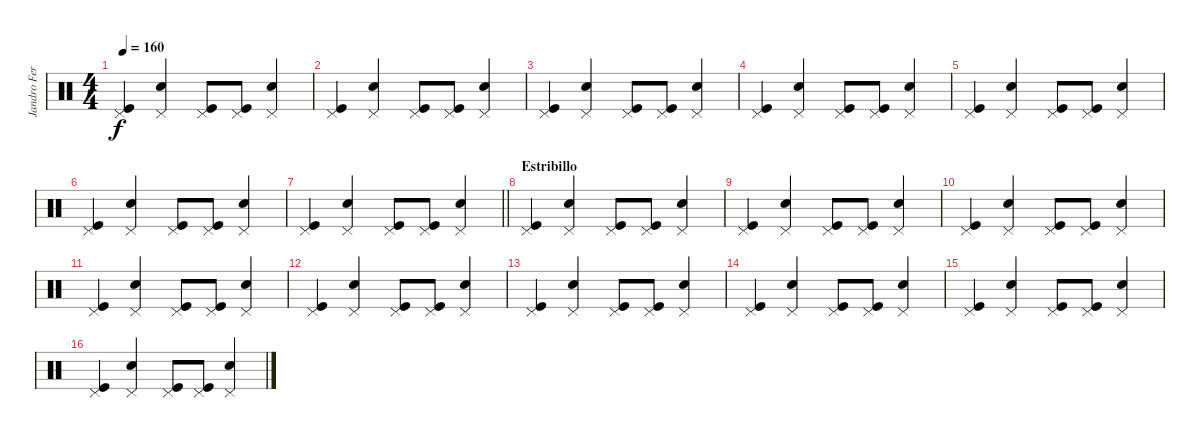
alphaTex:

\track ("Jandro Fernández" "Jandro Fer") {instrument percussion}
\staff
\articulation defaults
\ts (4 4)
\tempo 160
\clef neutral
\ks c
("Pedal Hi-Hat (hit)" "Kick (hit)").4{dy f} ("Pedal Hi-Hat (hit)" "Snare (hit) 2").4 ("Pedal Hi-Hat (hit)" "Kick (hit)").8 ("Pedal Hi-Hat (hit)" "Kick (hit)").8 ("Pedal Hi-Hat (hit)" "Snare (hit) 2").4 |
("Pedal Hi-Hat (hit)" "Kick (hit)").4 ("Pedal Hi-Hat (hit)" "Snare (hit) 2").4 ("Pedal Hi-Hat (hit)" "Kick (hit)").8 ("Pedal Hi-Hat (hit)" "Kick (hit)").8 ("Pedal Hi-Hat (hit)" "Snare (hit) 2").4 |
("Pedal Hi-Hat (hit)" "Kick (hit)").4 ("Pedal Hi-Hat (hit)" "Snare (hit) 2").4 ("Pedal Hi-Hat (hit)" "Kick (hit)").8 ("Pedal Hi-Hat (hit)" "Kick (hit)").8 ("Pedal Hi-Hat (hit)" "Snare (hit) 2").4 |
("Pedal Hi-Hat (hit)" "Kick (hit)").4 ("Pedal Hi-Hat (hit)" "Snare (hit) 2").4 ("Pedal Hi-Hat (hit)" "Kick (hit)").8 ("Pedal Hi-Hat (hit)" "Kick (hit)").8 ("Pedal Hi-Hat (hit)" "Snare (hit) 2").4 |
("Pedal Hi-Hat (hit)" "Kick (hit)").4 ("Pedal Hi-Hat (hit)" "Snare (hit) 2").4 ("Pedal Hi-Hat (hit)" "Kick (hit)").8 ("Pedal Hi-Hat (hit)" "Kick (hit)").8 ("Pedal Hi-Hat (hit)" "Snare (hit) 2").4 |
("Pedal Hi-Hat (hit)" "Kick (hit)").4 ("Pedal Hi-Hat (hit)" "Snare (hit) 2").4 ("Pedal Hi-Hat (hit)" "Kick (hit)").8 ("Pedal Hi-Hat (hit)" "Kick (hit)").8 ("Pedal Hi-Hat (hit)" "Snare (hit) 2").4 |
\barLineRight lightlight
("Pedal Hi-Hat (hit)" "Kick (hit)").4 ("Pedal Hi-Hat (hit)" "Snare (hit) 2").4 ("Pedal Hi-Hat (hit)" "Kick (hit)").8 ("Pedal Hi-Hat (hit)" "Kick (hit)").8 ("Pedal Hi-Hat (hit)" "Snare (hit) 2").4 |
\section ("" "Estribillo")
("Pedal Hi-Hat (hit)" "Kick (hit)").4 ("Pedal Hi-Hat (hit)" "Snare (hit) 2").4 ("Pedal Hi-Hat (hit)" "Kick (hit)").8 ("Pedal Hi-Hat (hit)" "Kick (hit)").8 ("Pedal Hi-Hat (hit)" "Snare (hit) 2").4 |
("Pedal Hi-Hat (hit)" "Kick (hit)").4 ("Pedal Hi-Hat (hit)" "Snare (hit) 2").4 ("Pedal Hi-Hat (hit)" "Kick (hit)").8 ("Pedal Hi-Hat (hit)" "Kick (hit)").8 ("Pedal Hi-Hat (hit)" "Snare (hit) 2").4 |
("Pedal Hi-Hat (hit)" "Kick (hit)").4 ("Pedal Hi-Hat (hit)" "Snare (hit) 2").4 ("Pedal Hi-Hat (hit)" "Kick (hit)").8 ("Pedal Hi-Hat (hit)" "Kick (hit)").8 ("Pedal Hi-Hat (hit)" "Snare (hit) 2").4 |
("Pedal Hi-Hat (hit)" "Kick (hit)").4 ("Pedal Hi-Hat (hit)" "Snare (hit) 2").4 ("Pedal Hi-Hat (hit)" "Kick (hit)").8 ("Pedal Hi-Hat (hit)" "Kick (hit)").8 ("Pedal Hi-Hat (hit)" "Snare (hit) 2").4 |
("Pedal Hi-Hat (hit)" "Kick (hit)").4 ("Pedal Hi-Hat (hit)" "Snare (hit) 2").4 ("Pedal Hi-Hat (hit)" "Kick (hit)").8 ("Pedal Hi-Hat (hit)" "Kick (hit)").8 ("Pedal Hi-Hat (hit)" "Snare (hit) 2").4 |
("Pedal Hi-Hat (hit)" "Kick (hit)").4 ("Pedal Hi-Hat (hit)" "Snare (hit) 2").4 ("Pedal Hi-Hat (hit)" "Kick (hit)").8 ("Pedal Hi-Hat (hit)" "Kick (hit)").8 ("Pedal Hi-Hat (hit)" "Snare (hit) 2").4 |
("Pedal Hi-Hat (hit)" "Kick (hit)").4 ("Pedal Hi-Hat (hit)" "Snare (hit) 2").4 ("Pedal Hi-Hat (hit)" "Kick (hit)").8 ("Pedal Hi-Hat (hit)" "Kick (hit)").8 ("Pedal Hi-Hat (hit)" "Snare (hit) 2").4 |
("Pedal Hi-Hat (hit)" "Kick (hit)").4 ("Pedal Hi-Hat (hit)" "Snare (hit) 2").4 ("Pedal Hi-Hat (hit)" "Kick (hit)").8 ("Pedal Hi-Hat (hit)" "Kick (hit)").8 ("Pedal Hi-Hat (hit)" "Snare (hit) 2").4 |
("Pedal Hi-Hat (hit)" "Kick (hit)").4 ("Pedal Hi-Hat (hit)" "Snare (hit) 2").4 ("Pedal Hi-Hat (hit)" "Kick (hit)").8 ("Pedal Hi-Hat (hit)" "Kick (hit)").8 ("Pedal Hi-Hat (hit)" "Snare (hit) 2").4
